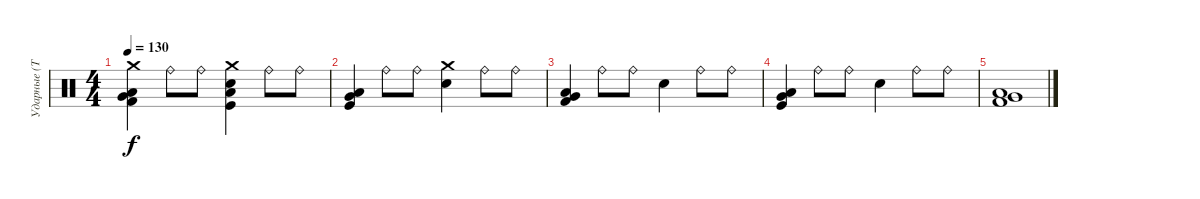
\track ("Ударные (Тьодальв)" "Ударные (Т") {instrument percussion}
\staff {score}
\articulation defaults
\ts (4 4)
\tempo 130
\clef neutral
\ks c
("Crash medium (hit)" "Low Floor Tom (hit)" "Very Low Tom (hit)" "Kick (hit) 2").4{dy f volume 3} "Ride (bell)".8{volume 3} "Ride (bell)".8{volume 3} ("Crash medium (hit)" "Snare (hit) 2" "Low Floor Tom (hit)" "Kick (hit)").4{volume 2} "Ride (bell)".8{volume 2} "Ride (bell)".8{volume 2} |
("Low Floor Tom (hit)" "Very Low Tom (hit)" "Kick (hit)").4{volume 1} "Ride (bell)".8{volume 1} "Ride (bell)".8{volume 1} ("Snare (hit) 2" "Crash medium (hit)").4{volume 1} "Ride (bell)".8{volume 1} "Ride (bell)".8{volume 1} |
("Low Floor Tom (hit)" "Very Low Tom (hit)" "Kick (hit) 2").4{volume 0} "Ride (bell)".8{volume 0} "Ride (bell)".8{volume 0} "Snare (hit) 2".4{volume 0} "Ride (bell)".8{volume 0} "Ride (bell)".8{volume 0} |
("Low Floor Tom (hit)" "Very Low Tom (hit)" "Kick (hit)").4{volume 0} "Ride (bell)".8{volume 0} "Ride (bell)".8{volume 0} "Snare (hit) 2".4{volume 0} "Ride (bell)".8{volume 0} "Ride (bell)".8{volume 0} |
("Low Floor Tom (hit)" "Very Low Tom (hit)" "Kick (hit) 2").1{volume 0}
